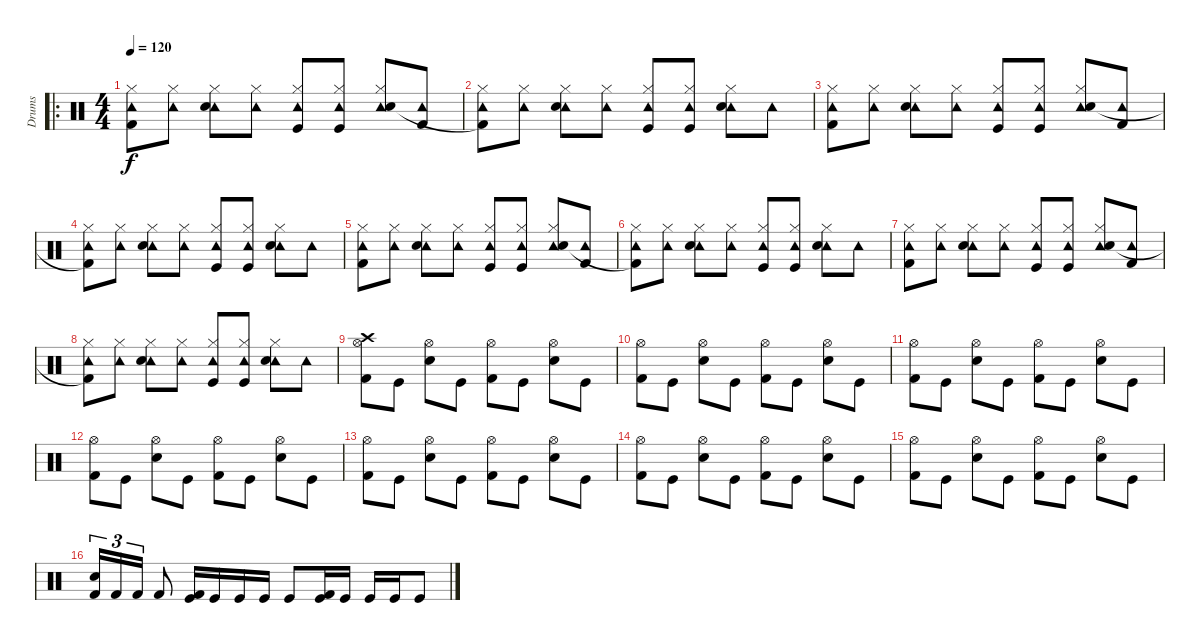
\track ("Drums" "Drums") {instrument percussion}
\staff {score}
\articulation defaults
\ro
\ts (4 4)
\tempo 120
\clef neutral
\ks c
("Tambourine (hit)" "Hi-Hat (closed)" "Kick (hit) 2").8{dy f} ("Tambourine (hit)" "Hi-Hat (closed)").8 ("Tambourine (hit)" "Hi-Hat (closed)" "Electric Snare (hit)").8 ("Tambourine (hit)" "Hi-Hat (closed)").8 ("Tambourine (hit)" "Hi-Hat (closed)" "Kick (hit)").8 ("Tambourine (hit)" "Hi-Hat (closed)" "Kick (hit)").8 ("Tambourine (hit)" "Hi-Hat (closed)" "Electric Snare (hit)").8 ("Tambourine (hit)" "Kick (hit) 2").8 |
("Tambourine (hit)" "Hi-Hat (closed)" "Kick (hit) 2"{t}).8 ("Tambourine (hit)" "Hi-Hat (closed)").8 ("Tambourine (hit)" "Hi-Hat (closed)" "Electric Snare (hit)").8 ("Tambourine (hit)" "Hi-Hat (closed)").8 ("Tambourine (hit)" "Hi-Hat (closed)" "Kick (hit)").8 ("Tambourine (hit)" "Hi-Hat (closed)" "Kick (hit)").8 ("Tambourine (hit)" "Hi-Hat (closed)" "Electric Snare (hit)").8 "Tambourine (hit)".8 |
("Tambourine (hit)" "Hi-Hat (closed)" "Kick (hit) 2").8 ("Tambourine (hit)" "Hi-Hat (closed)").8 ("Tambourine (hit)" "Hi-Hat (closed)" "Electric Snare (hit)").8 ("Tambourine (hit)" "Hi-Hat (closed)").8 ("Tambourine (hit)" "Hi-Hat (closed)" "Kick (hit)").8 ("Tambourine (hit)" "Hi-Hat (closed)" "Kick (hit)").8 ("Tambourine (hit)" "Hi-Hat (closed)" "Electric Snare (hit)").8 ("Tambourine (hit)" "Kick (hit) 2").8 |
("Tambourine (hit)" "Hi-Hat (closed)" "Kick (hit) 2"{t}).8 ("Tambourine (hit)" "Hi-Hat (closed)").8 ("Tambourine (hit)" "Hi-Hat (closed)" "Electric Snare (hit)").8 ("Tambourine (hit)" "Hi-Hat (closed)").8 ("Tambourine (hit)" "Hi-Hat (closed)" "Kick (hit)").8 ("Tambourine (hit)" "Hi-Hat (closed)" "Kick (hit)").8 ("Tambourine (hit)" "Hi-Hat (closed)" "Electric Snare (hit)").8 "Tambourine (hit)".8 |
("Tambourine (hit)" "Hi-Hat (closed)" "Kick (hit) 2").8 ("Tambourine (hit)" "Hi-Hat (closed)").8 ("Tambourine (hit)" "Hi-Hat (closed)" "Electric Snare (hit)").8 ("Tambourine (hit)" "Hi-Hat (closed)").8 ("Tambourine (hit)" "Hi-Hat (closed)" "Kick (hit)").8 ("Tambourine (hit)" "Hi-Hat (closed)" "Kick (hit)").8 ("Tambourine (hit)" "Hi-Hat (closed)" "Electric Snare (hit)").8 ("Tambourine (hit)" "Kick (hit) 2").8 |
("Tambourine (hit)" "Hi-Hat (closed)" "Kick (hit) 2"{t}).8 ("Tambourine (hit)" "Hi-Hat (closed)").8 ("Tambourine (hit)" "Hi-Hat (closed)" "Electric Snare (hit)").8 ("Tambourine (hit)" "Hi-Hat (closed)").8 ("Tambourine (hit)" "Hi-Hat (closed)" "Kick (hit)").8 ("Tambourine (hit)" "Hi-Hat (closed)" "Kick (hit)").8 ("Tambourine (hit)" "Hi-Hat (closed)" "Electric Snare (hit)").8 "Tambourine (hit)".8 |
("Tambourine (hit)" "Hi-Hat (closed)" "Kick (hit) 2").8 ("Tambourine (hit)" "Hi-Hat (closed)").8 ("Tambourine (hit)" "Hi-Hat (closed)" "Electric Snare (hit)").8 ("Tambourine (hit)" "Hi-Hat (closed)").8 ("Tambourine (hit)" "Hi-Hat (closed)" "Kick (hit)").8 ("Tambourine (hit)" "Hi-Hat (closed)" "Kick (hit)").8 ("Tambourine (hit)" "Hi-Hat (closed)" "Electric Snare (hit)").8 ("Tambourine (hit)" "Kick (hit) 2").8 |
("Tambourine (hit)" "Hi-Hat (closed)" "Kick (hit) 2"{t}).8 ("Tambourine (hit)" "Hi-Hat (closed)").8 ("Tambourine (hit)" "Hi-Hat (closed)" "Electric Snare (hit)").8 ("Tambourine (hit)" "Hi-Hat (closed)").8 ("Tambourine (hit)" "Hi-Hat (closed)" "Kick (hit)").8 ("Tambourine (hit)" "Hi-Hat (closed)" "Kick (hit)").8 ("Tambourine (hit)" "Hi-Hat (closed)" "Electric Snare (hit)").8 "Tambourine (hit)".8 |
("Hi-Hat (open)" "Kick (hit) 2" "Crash high (hit)").8 "Kick (hit)".8 ("Hi-Hat (open)" "Electric Snare (hit)").8 "Kick (hit)".8 ("Hi-Hat (open)" "Kick (hit) 2").8 "Kick (hit)".8 ("Hi-Hat (open)" "Electric Snare (hit)").8 "Kick (hit)".8 |
("Hi-Hat (open)" "Kick (hit) 2").8 "Kick (hit)".8 ("Hi-Hat (open)" "Electric Snare (hit)").8 "Kick (hit)".8 ("Hi-Hat (open)" "Kick (hit) 2").8 "Kick (hit)".8 ("Hi-Hat (open)" "Electric Snare (hit)").8 "Kick (hit)".8 |
("Hi-Hat (open)" "Kick (hit) 2").8 "Kick (hit)".8 ("Hi-Hat (open)" "Electric Snare (hit)").8 "Kick (hit)".8 ("Hi-Hat (open)" "Kick (hit) 2").8 "Kick (hit)".8 ("Hi-Hat (open)" "Electric Snare (hit)").8 "Kick (hit)".8 |
("Hi-Hat (open)" "Kick (hit) 2").8 "Kick (hit)".8 ("Hi-Hat (open)" "Electric Snare (hit)").8 "Kick (hit)".8 ("Hi-Hat (open)" "Kick (hit) 2").8 "Kick (hit)".8 ("Hi-Hat (open)" "Electric Snare (hit)").8 "Kick (hit)".8 |
("Hi-Hat (open)" "Kick (hit) 2").8 "Kick (hit)".8 ("Hi-Hat (open)" "Electric Snare (hit)").8 "Kick (hit)".8 ("Hi-Hat (open)" "Kick (hit) 2").8 "Kick (hit)".8 ("Hi-Hat (open)" "Electric Snare (hit)").8 "Kick (hit)".8 |
("Hi-Hat (open)" "Kick (hit) 2").8 "Kick (hit)".8 ("Hi-Hat (open)" "Electric Snare (hit)").8 "Kick (hit)".8 ("Hi-Hat (open)" "Kick (hit) 2").8 "Kick (hit)".8 ("Hi-Hat (open)" "Electric Snare (hit)").8 "Kick (hit)".8 |
("Hi-Hat (open)" "Kick (hit) 2").8 "Kick (hit)".8 ("Hi-Hat (open)" "Electric Snare (hit)").8 "Kick (hit)".8 ("Hi-Hat (open)" "Kick (hit) 2").8 "Kick (hit)".8 ("Hi-Hat (open)" "Electric Snare (hit)").8 "Kick (hit)".8 |
("Kick (hit) 2" "Snare (hit) 2").16{tu (3 2)} "Kick (hit) 2".16{tu (3 2)} "Kick (hit) 2".16{tu (3 2)} "Kick (hit) 2".8 ("Kick (hit)" "Kick (hit) 2").16 "Kick (hit)".16 "Kick (hit)".16 "Kick (hit)".16 "Kick (hit)".8 ("Kick (hit)" "Kick (hit) 2").16 "Kick (hit)".16 "Kick (hit)".16 "Kick (hit)".16 "Kick (hit)".8
